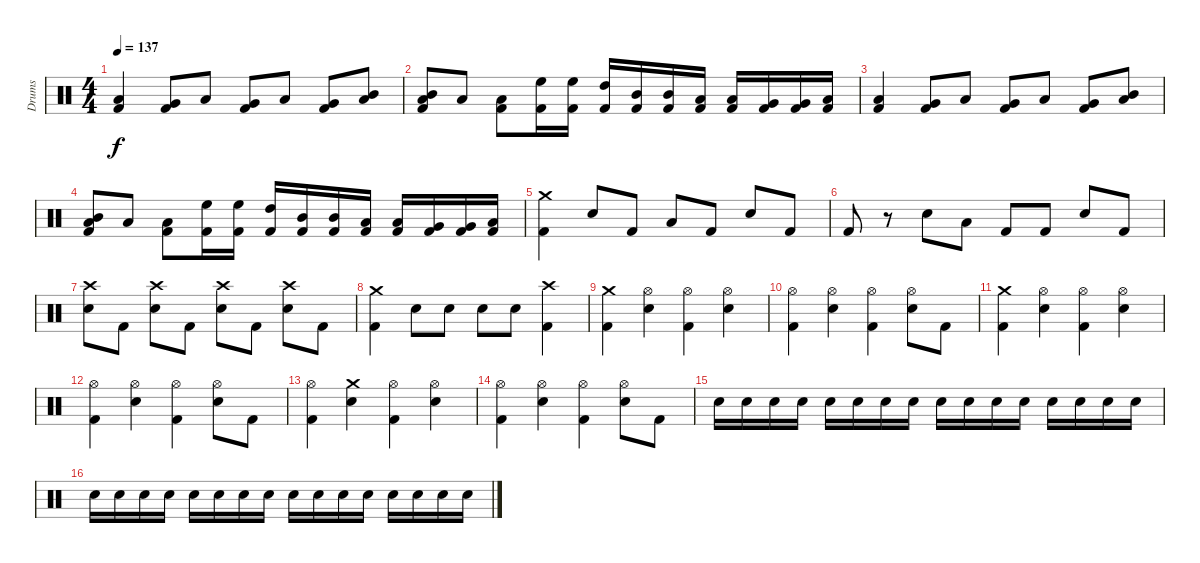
\track ("Drums" "Drums") {instrument percussion}
\staff {score}
\articulation defaults
\ts (4 4)
\tempo 137
\clef neutral
\ks c
("Low Floor Tom (hit)" "Kick (hit) 2").4{dy f} ("Very Low Tom (hit)" "Kick (hit) 2").8 "Low Floor Tom (hit)".8 ("Very Low Tom (hit)" "Kick (hit) 2").8 "Low Floor Tom (hit)".8 ("Very Low Tom (hit)" "Kick (hit) 2").8 ("Mid Tom (hit)" "Low Floor Tom (hit)").8 |
("Mid Tom (hit)" "Low Floor Tom (hit)" "Kick (hit) 2").8 "Low Floor Tom (hit)".8 ("Low Floor Tom (hit)" "Kick (hit) 2").8 ("High Floor Tom (hit)" "Kick (hit) 2").16 ("High Floor Tom (hit)" "Kick (hit) 2").16 ("High Tom (hit)" "Kick (hit) 2").16 ("Mid Tom (hit)" "Kick (hit) 2").16 ("Mid Tom (hit)" "Kick (hit) 2").16 ("Low Tom (hit)" "Kick (hit) 2").16 ("Low Tom (hit)" "Kick (hit) 2").16 ("Very Low Tom (hit)" "Kick (hit) 2").16 ("Very Low Tom (hit)" "Kick (hit) 2").16 ("Low Floor Tom (hit)" "Kick (hit) 2").16 |
("Low Floor Tom (hit)" "Kick (hit) 2").4 ("Very Low Tom (hit)" "Kick (hit) 2").8 "Low Floor Tom (hit)".8 ("Very Low Tom (hit)" "Kick (hit) 2").8 "Low Floor Tom (hit)".8 ("Very Low Tom (hit)" "Kick (hit) 2").8 ("Mid Tom (hit)" "Low Floor Tom (hit)").8 |
("Mid Tom (hit)" "Low Floor Tom (hit)" "Kick (hit) 2").8 "Low Floor Tom (hit)".8 ("Low Floor Tom (hit)" "Kick (hit) 2").8 ("High Floor Tom (hit)" "Kick (hit) 2").16 ("High Floor Tom (hit)" "Kick (hit) 2").16 ("High Tom (hit)" "Kick (hit) 2").16 ("Mid Tom (hit)" "Kick (hit) 2").16 ("Mid Tom (hit)" "Kick (hit) 2").16 ("Low Tom (hit)" "Kick (hit) 2").16 ("Low Tom (hit)" "Kick (hit) 2").16 ("Very Low Tom (hit)" "Kick (hit) 2").16 ("Very Low Tom (hit)" "Kick (hit) 2").16 ("Low Floor Tom (hit)" "Kick (hit) 2").16 |
("Crash medium (hit)" "Kick (hit) 2").4 "Snare (hit) 2".8 "Kick (hit) 2".8 "Low Floor Tom (hit)".8 "Kick (hit) 2".8 "Snare (hit) 2".8 "Kick (hit) 2".8 |
"Kick (hit) 2".8 r.8 "Snare (hit) 2".8 "Low Floor Tom (hit)".8 "Kick (hit) 2".8 "Kick (hit) 2".8 "Snare (hit) 2".8 "Kick (hit) 2".8 |
("Crash high (hit)" "Snare (hit) 2").8 "Kick (hit) 2".8 ("Crash high (hit)" "Snare (hit) 2").8 "Kick (hit) 2".8 ("Crash high (hit)" "Snare (hit) 2").8 "Kick (hit) 2".8 ("Crash high (hit)" "Snare (hit) 2").8 "Kick (hit) 2".8 |
("Crash medium (hit)" "Kick (hit) 2").4 "Snare (hit) 2".8 "Snare (hit) 2".8 "Snare (hit) 2".8 "Snare (hit) 2".8 ("Crash high (hit)" "Kick (hit) 2").4 |
("Crash medium (hit)" "Kick (hit) 2").4 ("Hi-Hat (open)" "Snare (hit) 2").4 ("Hi-Hat (open)" "Kick (hit) 2").4 ("Hi-Hat (open)" "Snare (hit) 2").4 |
("Hi-Hat (open)" "Kick (hit) 2").4 ("Hi-Hat (open)" "Snare (hit) 2").4 ("Hi-Hat (open)" "Kick (hit) 2").4 ("Hi-Hat (open)" "Snare (hit) 2").8 "Kick (hit) 2".8 |
("Crash medium (hit)" "Kick (hit) 2").4 ("Hi-Hat (open)" "Snare (hit) 2").4 ("Hi-Hat (open)" "Kick (hit) 2").4 ("Hi-Hat (open)" "Snare (hit) 2").4 |
("Hi-Hat (open)" "Kick (hit) 2").4 ("Hi-Hat (open)" "Snare (hit) 2").4 ("Hi-Hat (open)" "Kick (hit) 2").4 ("Hi-Hat (open)" "Snare (hit) 2").8 "Kick (hit) 2".8 |
("Hi-Hat (open)" "Kick (hit) 2").4 ("Crash medium (hit)" "Snare (hit) 2").4 ("Hi-Hat (open)" "Kick (hit) 2").4 ("Hi-Hat (open)" "Snare (hit) 2").4 |
("Hi-Hat (open)" "Kick (hit) 2").4 ("Hi-Hat (open)" "Snare (hit) 2").4 ("Hi-Hat (open)" "Kick (hit) 2").4 ("Hi-Hat (open)" "Snare (hit) 2").8 "Kick (hit) 2".8 |
"Snare (hit) 2".16 "Snare (hit) 2".16 "Snare (hit) 2".16 "Snare (hit) 2".16 "Snare (hit) 2".16 "Snare (hit) 2".16 "Snare (hit) 2".16 "Snare (hit) 2".16 "Snare (hit) 2".16 "Snare (hit) 2".16 "Snare (hit) 2".16 "Snare (hit) 2".16 "Snare (hit) 2".16 "Snare (hit) 2".16 "Snare (hit) 2".16 "Snare (hit) 2".16 |
"Snare (hit) 2".16 "Snare (hit) 2".16 "Snare (hit) 2".16 "Snare (hit) 2".16 "Snare (hit) 2".16 "Snare (hit) 2".16 "Snare (hit) 2".16 "Snare (hit) 2".16 "Snare (hit) 2".16 "Snare (hit) 2".16 "Snare (hit) 2".16 "Snare (hit) 2".16 "Snare (hit) 2".16 "Snare (hit) 2".16 "Snare (hit) 2".16 "Snare (hit) 2".16
